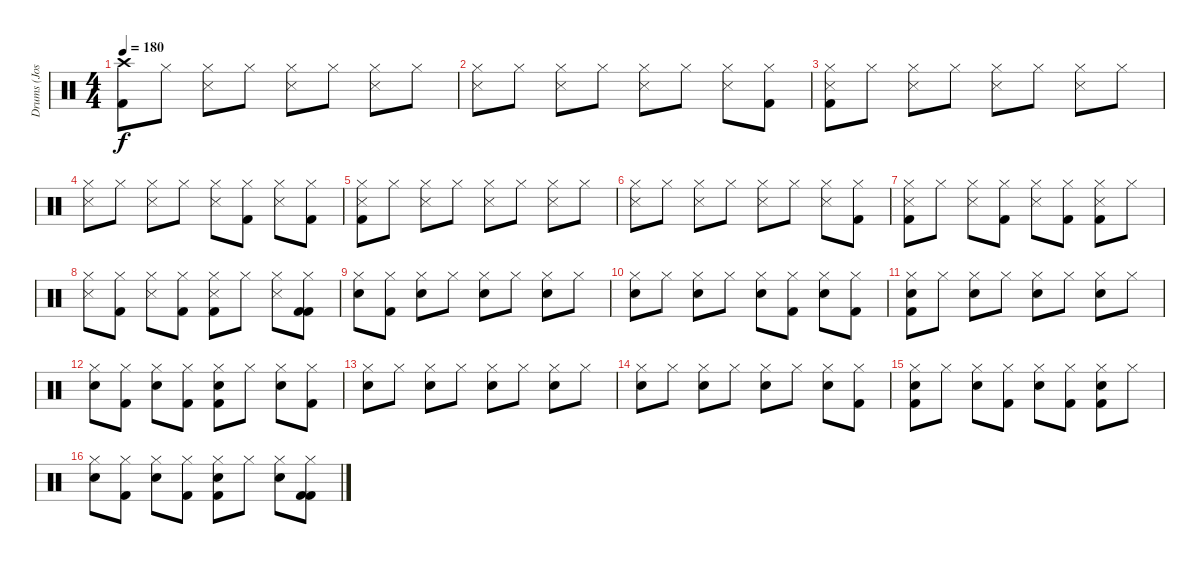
\track ("Drums (Jose Pasilas II)" "Drums (Jos") {instrument percussion}
\staff {score}
\articulation defaults
\ts (4 4)
\tempo 180
\clef neutral
\ks c
("Kick (hit) 2" "Crash high (hit)").8{dy f} "Hi-Hat (closed)".8 ("Hi-Hat (closed)" "Snare (side stick) 3").8 "Hi-Hat (closed)".8 ("Hi-Hat (closed)" "Snare (side stick) 3").8 "Hi-Hat (closed)".8 ("Hi-Hat (closed)" "Snare (side stick) 3").8 "Hi-Hat (closed)".8 |
("Snare (side stick) 3" "Hi-Hat (closed)").8 "Hi-Hat (closed)".8 ("Hi-Hat (closed)" "Snare (side stick) 3").8 "Hi-Hat (closed)".8 ("Hi-Hat (closed)" "Snare (side stick) 3").8 "Hi-Hat (closed)".8 ("Hi-Hat (closed)" "Snare (side stick) 3").8 ("Hi-Hat (closed)" "Kick (hit) 2").8 |
("Snare (side stick) 3" "Hi-Hat (closed)" "Kick (hit) 2").8 "Hi-Hat (closed)".8 ("Hi-Hat (closed)" "Snare (side stick) 3").8 "Hi-Hat (closed)".8 ("Hi-Hat (closed)" "Snare (side stick) 3").8 "Hi-Hat (closed)".8 ("Hi-Hat (closed)" "Snare (side stick) 3").8 "Hi-Hat (closed)".8 |
("Hi-Hat (closed)" "Snare (side stick) 3").8 "Hi-Hat (closed)".8 ("Hi-Hat (closed)" "Snare (side stick) 3").8 "Hi-Hat (closed)".8 ("Hi-Hat (closed)" "Snare (side stick) 3").8 ("Hi-Hat (closed)" "Kick (hit) 2").8 ("Hi-Hat (closed)" "Snare (side stick) 3").8 ("Hi-Hat (closed)" "Kick (hit) 2").8 |
("Snare (side stick) 3" "Hi-Hat (closed)" "Kick (hit) 2").8 "Hi-Hat (closed)".8 ("Hi-Hat (closed)" "Snare (side stick) 3").8 "Hi-Hat (closed)".8 ("Hi-Hat (closed)" "Snare (side stick) 3").8 "Hi-Hat (closed)".8 ("Hi-Hat (closed)" "Snare (side stick) 3").8 "Hi-Hat (closed)".8 |
("Snare (side stick) 3" "Hi-Hat (closed)").8 "Hi-Hat (closed)".8 ("Hi-Hat (closed)" "Snare (side stick) 3").8 "Hi-Hat (closed)".8 ("Hi-Hat (closed)" "Snare (side stick) 3").8 "Hi-Hat (closed)".8 ("Hi-Hat (closed)" "Snare (side stick) 3").8 ("Hi-Hat (closed)" "Kick (hit) 2").8 |
("Snare (side stick) 3" "Hi-Hat (closed)" "Kick (hit) 2").8 "Hi-Hat (closed)".8 ("Hi-Hat (closed)" "Snare (side stick) 3").8 ("Hi-Hat (closed)" "Kick (hit) 2").8 ("Hi-Hat (closed)" "Snare (side stick) 3").8 ("Hi-Hat (closed)" "Kick (hit) 2").8 ("Hi-Hat (closed)" "Snare (side stick) 3" "Kick (hit) 2").8 "Hi-Hat (closed)".8 |
("Snare (side stick) 3" "Hi-Hat (closed)").8 ("Hi-Hat (closed)" "Kick (hit) 2").8 ("Hi-Hat (closed)" "Snare (side stick) 3").8 ("Hi-Hat (closed)" "Kick (hit) 2").8 ("Hi-Hat (closed)" "Snare (side stick) 3" "Kick (hit) 2").8 "Hi-Hat (closed)".8 ("Hi-Hat (closed)" "Snare (side stick) 3").8 ("Hi-Hat (closed)" "Kick (hit) 2" "Kick (hit) 2").8 |
("Snare (hit) 2" "Hi-Hat (closed)").8 ("Hi-Hat (closed)" "Kick (hit) 2").8 ("Hi-Hat (closed)" "Snare (hit) 2").8 "Hi-Hat (closed)".8 ("Hi-Hat (closed)" "Snare (hit) 2").8 "Hi-Hat (closed)".8 ("Hi-Hat (closed)" "Snare (hit) 2").8 "Hi-Hat (closed)".8 |
("Snare (hit) 2" "Hi-Hat (closed)").8 "Hi-Hat (closed)".8 ("Hi-Hat (closed)" "Snare (hit) 2").8 "Hi-Hat (closed)".8 ("Hi-Hat (closed)" "Snare (hit) 2").8 ("Hi-Hat (closed)" "Kick (hit) 2").8 ("Hi-Hat (closed)" "Snare (hit) 2").8 ("Hi-Hat (closed)" "Kick (hit) 2").8 |
("Kick (hit) 2" "Snare (hit) 2" "Hi-Hat (closed)").8 "Hi-Hat (closed)".8 ("Hi-Hat (closed)" "Snare (hit) 2").8 "Hi-Hat (closed)".8 ("Hi-Hat (closed)" "Snare (hit) 2").8 "Hi-Hat (closed)".8 ("Hi-Hat (closed)" "Snare (hit) 2").8 "Hi-Hat (closed)".8 |
("Snare (hit) 2" "Hi-Hat (closed)").8 ("Hi-Hat (closed)" "Kick (hit) 2").8 ("Hi-Hat (closed)" "Snare (hit) 2").8 ("Hi-Hat (closed)" "Kick (hit) 2").8 ("Hi-Hat (closed)" "Snare (hit) 2" "Kick (hit) 2").8 "Hi-Hat (closed)".8 ("Hi-Hat (closed)" "Snare (hit) 2").8 ("Hi-Hat (closed)" "Kick (hit) 2").8 |
("Snare (hit) 2" "Hi-Hat (closed)").8 "Hi-Hat (closed)".8 ("Hi-Hat (closed)" "Snare (hit) 2").8 "Hi-Hat (closed)".8 ("Hi-Hat (closed)" "Snare (hit) 2").8 "Hi-Hat (closed)".8 ("Hi-Hat (closed)" "Snare (hit) 2").8 "Hi-Hat (closed)".8 |
("Snare (hit) 2" "Hi-Hat (closed)").8 "Hi-Hat (closed)".8 ("Hi-Hat (closed)" "Snare (hit) 2").8 "Hi-Hat (closed)".8 ("Hi-Hat (closed)" "Snare (hit) 2").8 "Hi-Hat (closed)".8 ("Hi-Hat (closed)" "Snare (hit) 2").8 ("Hi-Hat (closed)" "Kick (hit) 2").8 |
("Kick (hit) 2" "Snare (hit) 2" "Hi-Hat (closed)").8 "Hi-Hat (closed)".8 ("Hi-Hat (closed)" "Snare (hit) 2").8 ("Hi-Hat (closed)" "Kick (hit) 2").8 ("Hi-Hat (closed)" "Snare (hit) 2").8 ("Hi-Hat (closed)" "Kick (hit) 2").8 ("Hi-Hat (closed)" "Snare (hit) 2" "Kick (hit) 2").8 "Hi-Hat (closed)".8 |
("Snare (hit) 2" "Hi-Hat (closed)").8 ("Hi-Hat (closed)" "Kick (hit) 2").8 ("Hi-Hat (closed)" "Snare (hit) 2").8 ("Hi-Hat (closed)" "Kick (hit) 2").8 ("Hi-Hat (closed)" "Snare (hit) 2" "Kick (hit) 2").8 "Hi-Hat (closed)".8 ("Hi-Hat (closed)" "Snare (hit) 2").8 ("Hi-Hat (closed)" "Kick (hit) 2" "Kick (hit) 2").8
